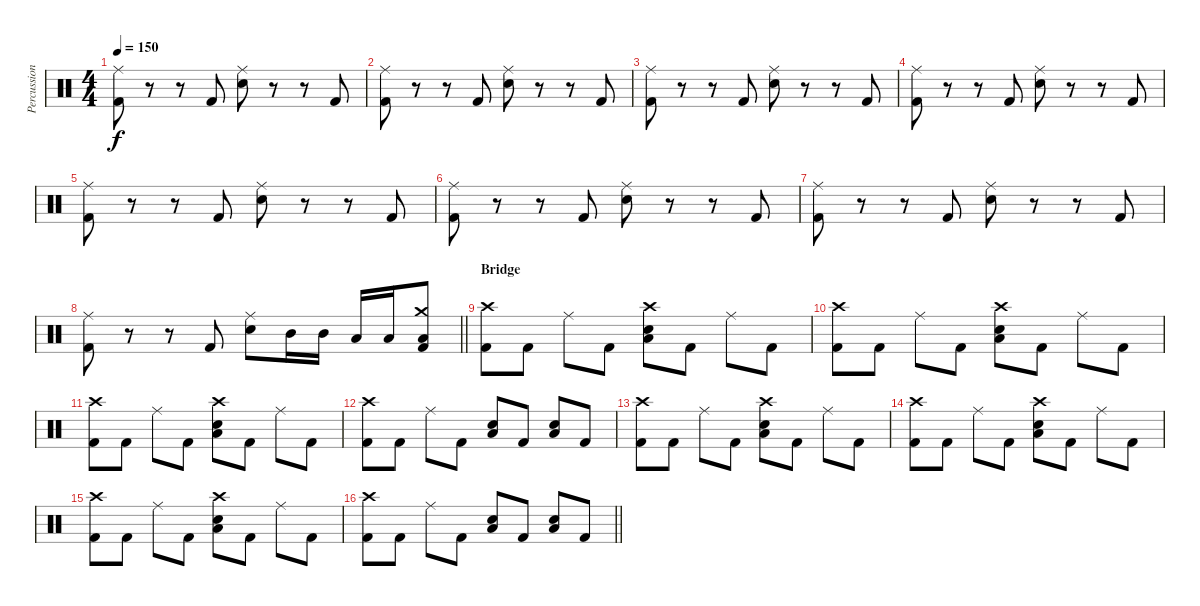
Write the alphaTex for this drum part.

\track ("Percussion" "Percussion") {instrument percussion}
\staff {score}
\articulation defaults
\ts (4 4)
\tempo 150
\clef neutral
\ks c
("Ride (middle)" "Kick (hit) 2").8{dy f} r.8 r.8 "Kick (hit) 2".8 ("Ride (middle)" "Snare (hit) 2").8 r.8 r.8 "Kick (hit) 2".8 |
("Ride (middle)" "Kick (hit) 2").8 r.8 r.8 "Kick (hit) 2".8 ("Ride (middle)" "Snare (hit) 2").8 r.8 r.8 "Kick (hit) 2".8 |
("Ride (middle)" "Kick (hit) 2").8 r.8 r.8 "Kick (hit) 2".8 ("Ride (middle)" "Snare (hit) 2").8 r.8 r.8 "Kick (hit) 2".8 |
("Ride (middle)" "Kick (hit) 2").8 r.8 r.8 "Kick (hit) 2".8 ("Ride (middle)" "Snare (hit) 2").8 r.8 r.8 "Kick (hit) 2".8 |
("Ride (middle)" "Kick (hit) 2").8 r.8 r.8 "Kick (hit) 2".8 ("Ride (middle)" "Snare (hit) 2").8 r.8 r.8 "Kick (hit) 2".8 |
("Ride (middle)" "Kick (hit) 2").8 r.8 r.8 "Kick (hit) 2".8 ("Ride (middle)" "Snare (hit) 2").8 r.8 r.8 "Kick (hit) 2".8 |
("Ride (middle)" "Kick (hit) 2").8 r.8 r.8 "Kick (hit) 2".8 ("Ride (middle)" "Snare (hit) 2").8 r.8 r.8 "Kick (hit) 2".8 |
\barLineRight lightlight
("Ride (middle)" "Kick (hit) 2").8 r.8 r.8 "Kick (hit) 2".8 ("Ride (middle)" "Snare (hit) 2").8 "Mid Tom (hit)".16 "Mid Tom (hit)".16 "Low Tom (hit)".16 "Low Tom (hit)".16 ("Crash medium (hit)" "Low Floor Tom (hit)" "Kick (hit) 2").8 |
\section ("" "Bridge")
("Crash high (hit)" "Kick (hit) 2").8 "Kick (hit) 2".8 "Ride (middle)".8 "Kick (hit) 2".8 ("Crash high (hit)" "Low Tom (hit)" "Snare (hit) 2").8 "Kick (hit) 2".8 "Ride (middle)".8 "Kick (hit) 2".8 |
("Crash high (hit)" "Kick (hit) 2").8 "Kick (hit) 2".8 "Ride (middle)".8 "Kick (hit) 2".8 ("Crash high (hit)" "Low Tom (hit)" "Snare (hit) 2").8 "Kick (hit) 2".8 "Ride (middle)".8 "Kick (hit) 2".8 |
("Crash high (hit)" "Kick (hit) 2").8 "Kick (hit) 2".8 "Ride (middle)".8 "Kick (hit) 2".8 ("Crash high (hit)" "Low Tom (hit)" "Snare (hit) 2").8 "Kick (hit) 2".8 "Ride (middle)".8 "Kick (hit) 2".8 |
("Crash high (hit)" "Kick (hit) 2").8 "Kick (hit) 2".8 "Ride (middle)".8 "Kick (hit) 2".8 ("Low Tom (hit)" "Snare (hit) 2").8 "Kick (hit) 2".8 ("Low Tom (hit)" "Snare (hit) 2").8 "Kick (hit) 2".8 |
("Crash high (hit)" "Kick (hit) 2").8 "Kick (hit) 2".8 "Ride (middle)".8 "Kick (hit) 2".8 ("Crash high (hit)" "Low Tom (hit)" "Snare (hit) 2").8 "Kick (hit) 2".8 "Ride (middle)".8 "Kick (hit) 2".8 |
("Crash high (hit)" "Kick (hit) 2").8 "Kick (hit) 2".8 "Ride (middle)".8 "Kick (hit) 2".8 ("Crash high (hit)" "Low Tom (hit)" "Snare (hit) 2").8 "Kick (hit) 2".8 "Ride (middle)".8 "Kick (hit) 2".8 |
("Crash high (hit)" "Kick (hit) 2").8 "Kick (hit) 2".8 "Ride (middle)".8 "Kick (hit) 2".8 ("Crash high (hit)" "Low Tom (hit)" "Snare (hit) 2").8 "Kick (hit) 2".8 "Ride (middle)".8 "Kick (hit) 2".8 |
\barLineRight lightlight
("Crash high (hit)" "Kick (hit) 2").8 "Kick (hit) 2".8 "Ride (middle)".8 "Kick (hit) 2".8 ("Low Tom (hit)" "Snare (hit) 2").8 "Kick (hit) 2".8 ("Low Tom (hit)" "Snare (hit) 2").8 "Kick (hit) 2".8
